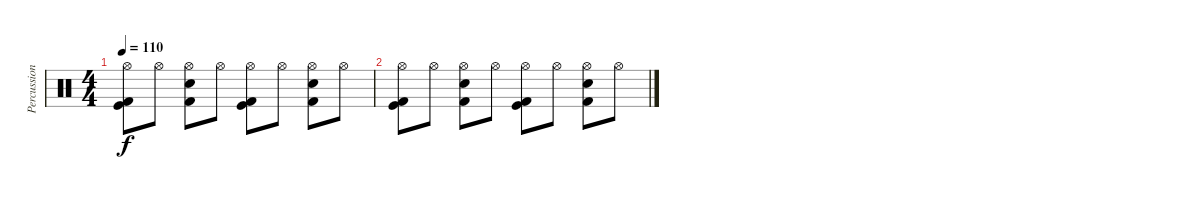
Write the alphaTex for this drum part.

\track ("Percussioni" "Percussion") {instrument percussion}
\staff {score}
\articulation defaults
\ts (4 4)
\tempo 110
\clef neutral
\ks c
("Hi-Hat (open)" "Kick (hit)" "Kick (hit) 2").8{dy f} "Hi-Hat (open)".8 ("Hi-Hat (open)" "Electric Snare (hit)" "Kick (hit) 2").8 "Hi-Hat (open)".8 ("Hi-Hat (open)" "Kick (hit)" "Kick (hit) 2").8 "Hi-Hat (open)".8 ("Hi-Hat (open)" "Electric Snare (hit)" "Kick (hit) 2").8 "Hi-Hat (open)".8 |
("Hi-Hat (open)" "Kick (hit)" "Kick (hit) 2").8 "Hi-Hat (open)".8 ("Hi-Hat (open)" "Electric Snare (hit)" "Kick (hit) 2").8 "Hi-Hat (open)".8 ("Hi-Hat (open)" "Kick (hit)" "Kick (hit) 2").8 "Hi-Hat (open)".8 ("Hi-Hat (open)" "Electric Snare (hit)" "Kick (hit) 2").8 "Hi-Hat (open)".8
